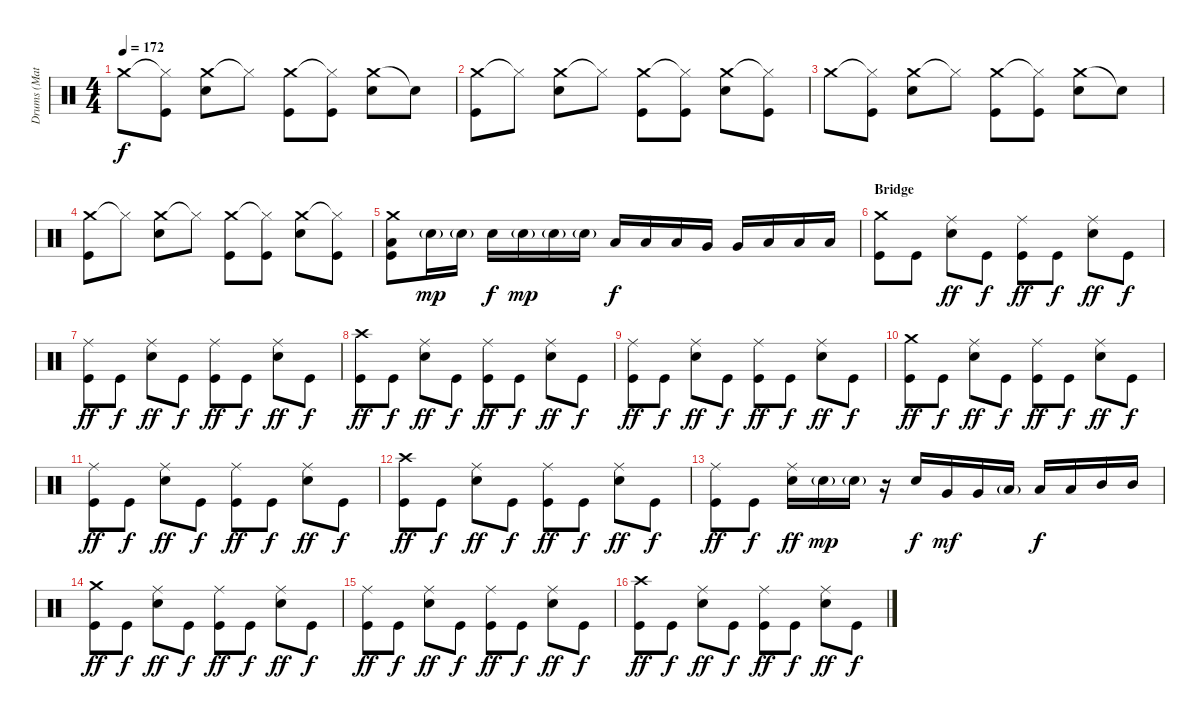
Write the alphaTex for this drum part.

\track ("Drums (Matt)" "Drums (Mat") {instrument percussion}
\staff {score}
\articulation defaults
\ts (4 4)
\tempo 172
\clef neutral
\ks c "Crash medium (hit)".8{dy f}
("Hi-Hat (closed)"{t} "Kick (hit)").8 ("Crash medium (hit)" "Electric Snare (hit)").8 "Hi-Hat (closed)"{t}.8 ("Crash medium (hit)" "Kick (hit)").8 ("Hi-Hat (closed)"{t} "Kick (hit)").8 ("Crash medium (hit)" "Electric Snare (hit)").8 "Snare (hit)"{t}.8 |
("Crash medium (hit)" "Kick (hit)").8 "Hi-Hat (closed)"{t}.8 ("Crash medium (hit)" "Electric Snare (hit)").8 "Hi-Hat (closed)"{t}.8 ("Crash medium (hit)" "Kick (hit)").8 ("Hi-Hat (closed)"{t} "Kick (hit)").8 ("Crash medium (hit)" "Electric Snare (hit)").8 ("Hi-Hat (closed)"{t} "Kick (hit)").8 |
"Crash medium (hit)".8 ("Hi-Hat (closed)"{t} "Kick (hit)").8 ("Crash medium (hit)" "Electric Snare (hit)").8 "Hi-Hat (closed)"{t}.8 ("Crash medium (hit)" "Kick (hit)").8 ("Hi-Hat (closed)"{t} "Kick (hit)").8 ("Crash medium (hit)" "Electric Snare (hit)").8 "Snare (hit)"{t}.8 |
("Crash medium (hit)" "Kick (hit)").8 "Hi-Hat (closed)"{t}.8 ("Crash medium (hit)" "Electric Snare (hit)").8 "Hi-Hat (closed)"{t}.8 ("Crash medium (hit)" "Kick (hit)").8 ("Hi-Hat (closed)"{t} "Kick (hit)").8 ("Crash medium (hit)" "Electric Snare (hit)").8 ("Hi-Hat (closed)"{t} "Kick (hit)").8 |
("Crash medium (hit)" "Low Tom (hit)" "Kick (hit)").8 "Electric Snare (hit)"{g}.16{dy mp} "Electric Snare (hit)"{g}.16 "Electric Snare (hit)".16{dy f} "Electric Snare (hit)"{g}.16{dy mp} "Electric Snare (hit)"{g}.16 "Electric Snare (hit)"{g}.16 "Low Tom (hit)".16{dy f} "Low Tom (hit)".16 "Low Tom (hit)".16 "Very Low Tom (hit)".16 "Very Low Tom (hit)".16 "Low Floor Tom (hit)".16 "Low Floor Tom (hit)".16 "Low Floor Tom (hit)".16 |
\section ("" "Bridge")
("Crash medium (hit)" "Kick (hit)").8 "Kick (hit)".8 ("Ride (middle)" "Electric Snare (hit)").8{dy ff} "Kick (hit)".8{dy f} ("Ride (middle)" "Kick (hit)").8{dy ff} "Kick (hit)".8{dy f} ("Ride (middle)" "Electric Snare (hit)").8{dy ff} "Kick (hit)".8{dy f} |
("Ride (middle)" "Kick (hit)").8{dy ff} "Kick (hit)".8{dy f} ("Ride (middle)" "Electric Snare (hit)").8{dy ff} "Kick (hit)".8{dy f} ("Ride (middle)" "Kick (hit)").8{dy ff} "Kick (hit)".8{dy f} ("Ride (middle)" "Electric Snare (hit)").8{dy ff} "Kick (hit)".8{dy f} |
("Crash high (hit)" "Kick (hit)").8{dy ff} "Kick (hit)".8{dy f} ("Ride (middle)" "Electric Snare (hit)").8{dy ff} "Kick (hit)".8{dy f} ("Ride (middle)" "Kick (hit)").8{dy ff} "Kick (hit)".8{dy f} ("Ride (middle)" "Electric Snare (hit)").8{dy ff} "Kick (hit)".8{dy f} |
("Ride (middle)" "Kick (hit)").8{dy ff} "Kick (hit)".8{dy f} ("Ride (middle)" "Electric Snare (hit)").8{dy ff} "Kick (hit)".8{dy f} ("Ride (middle)" "Kick (hit)").8{dy ff} "Kick (hit)".8{dy f} ("Ride (middle)" "Electric Snare (hit)").8{dy ff} "Kick (hit)".8{dy f} |
("Crash medium (hit)" "Kick (hit)").8{dy ff} "Kick (hit)".8{dy f} ("Ride (middle)" "Electric Snare (hit)").8{dy ff} "Kick (hit)".8{dy f} ("Ride (middle)" "Kick (hit)").8{dy ff} "Kick (hit)".8{dy f} ("Ride (middle)" "Electric Snare (hit)").8{dy ff} "Kick (hit)".8{dy f} |
("Ride (middle)" "Kick (hit)").8{dy ff} "Kick (hit)".8{dy f} ("Ride (middle)" "Electric Snare (hit)").8{dy ff} "Kick (hit)".8{dy f} ("Ride (middle)" "Kick (hit)").8{dy ff} "Kick (hit)".8{dy f} ("Ride (middle)" "Electric Snare (hit)").8{dy ff} "Kick (hit)".8{dy f} |
("Crash high (hit)" "Kick (hit)").8{dy ff} "Kick (hit)".8{dy f} ("Ride (middle)" "Electric Snare (hit)").8{dy ff} "Kick (hit)".8{dy f} ("Ride (middle)" "Kick (hit)").8{dy ff} "Kick (hit)".8{dy f} ("Ride (middle)" "Electric Snare (hit)").8{dy ff} "Kick (hit)".8{dy f} |
("Ride (middle)" "Kick (hit)").8{dy ff} "Kick (hit)".8{dy f} ("Ride (middle)" "Electric Snare (hit)").16{dy ff} "Electric Snare (hit)"{g}.16{dy mp} "Electric Snare (hit)"{g}.16 r.16 "Electric Snare (hit)".16{dy f} "Very Low Tom (hit)".16{dy mf} "Very Low Tom (hit)".16 "Low Floor Tom (hit)"{g}.16 "Low Tom (hit)".16{dy f} "Low Tom (hit)".16 "Mid Tom (hit)".16 "Mid Tom (hit)".16 |
("Crash medium (hit)" "Kick (hit)").8{dy ff} "Kick (hit)".8{dy f} ("Ride (middle)" "Electric Snare (hit)").8{dy ff} "Kick (hit)".8{dy f} ("Ride (middle)" "Kick (hit)").8{dy ff} "Kick (hit)".8{dy f} ("Ride (middle)" "Electric Snare (hit)").8{dy ff} "Kick (hit)".8{dy f} |
("Ride (middle)" "Kick (hit)").8{dy ff} "Kick (hit)".8{dy f} ("Ride (middle)" "Electric Snare (hit)").8{dy ff} "Kick (hit)".8{dy f} ("Ride (middle)" "Kick (hit)").8{dy ff} "Kick (hit)".8{dy f} ("Ride (middle)" "Electric Snare (hit)").8{dy ff} "Kick (hit)".8{dy f} |
("Crash high (hit)" "Kick (hit)").8{dy ff} "Kick (hit)".8{dy f} ("Ride (middle)" "Electric Snare (hit)").8{dy ff} "Kick (hit)".8{dy f} ("Ride (middle)" "Kick (hit)").8{dy ff} "Kick (hit)".8{dy f} ("Ride (middle)" "Electric Snare (hit)").8{dy ff} "Kick (hit)".8{dy f}
